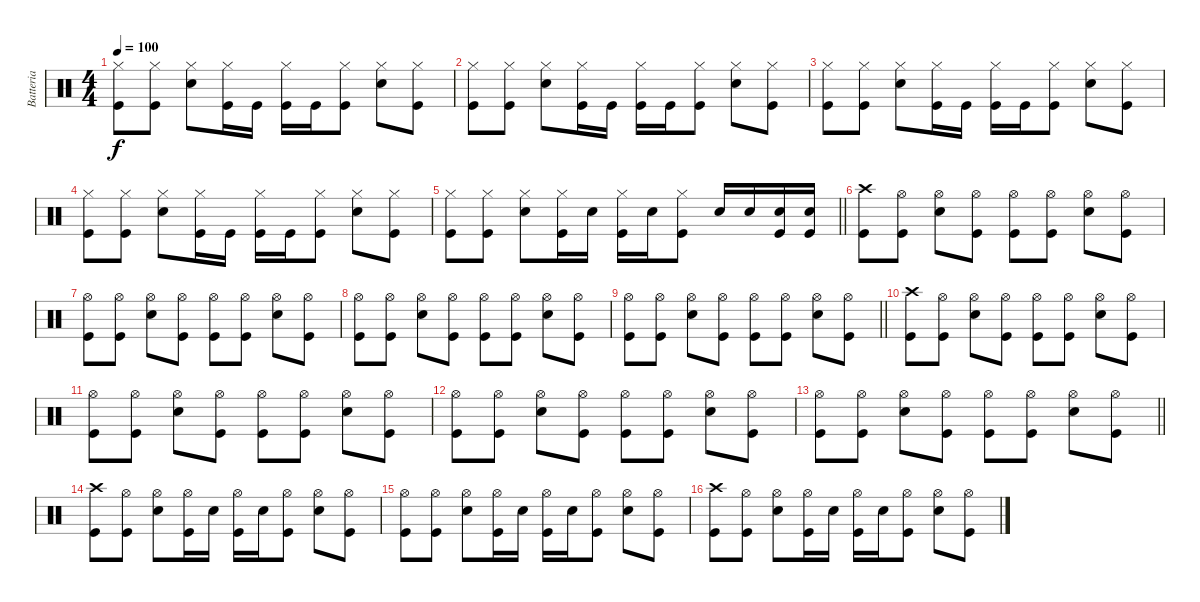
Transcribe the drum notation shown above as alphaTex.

\track ("Batteria" "Batteria") {instrument percussion}
\staff {score}
\articulation defaults
\ts (4 4)
\tempo 100
\clef neutral
\ks c
("Hi-Hat (closed)" "Kick (hit)").8{dy f} ("Hi-Hat (closed)" "Kick (hit)").8 ("Snare (hit) 2" "Hi-Hat (closed)").8 ("Hi-Hat (closed)" "Kick (hit)").16 "Kick (hit)".16 ("Kick (hit)" "Hi-Hat (closed)").16 "Kick (hit)".16 ("Kick (hit)" "Hi-Hat (closed)").8 ("Hi-Hat (closed)" "Snare (hit) 2").8 ("Kick (hit)" "Hi-Hat (closed)").8 |
("Hi-Hat (closed)" "Kick (hit)").8 ("Hi-Hat (closed)" "Kick (hit)").8 ("Snare (hit) 2" "Hi-Hat (closed)").8 ("Hi-Hat (closed)" "Kick (hit)").16 "Kick (hit)".16 ("Kick (hit)" "Hi-Hat (closed)").16 "Kick (hit)".16 ("Kick (hit)" "Hi-Hat (closed)").8 ("Hi-Hat (closed)" "Snare (hit) 2").8 ("Kick (hit)" "Hi-Hat (closed)").8 |
("Hi-Hat (closed)" "Kick (hit)").8 ("Hi-Hat (closed)" "Kick (hit)").8 ("Snare (hit) 2" "Hi-Hat (closed)").8 ("Hi-Hat (closed)" "Kick (hit)").16 "Kick (hit)".16 ("Kick (hit)" "Hi-Hat (closed)").16 "Kick (hit)".16 ("Kick (hit)" "Hi-Hat (closed)").8 ("Hi-Hat (closed)" "Snare (hit) 2").8 ("Kick (hit)" "Hi-Hat (closed)").8 |
("Hi-Hat (closed)" "Kick (hit)").8 ("Hi-Hat (closed)" "Kick (hit)").8 ("Snare (hit) 2" "Hi-Hat (closed)").8 ("Hi-Hat (closed)" "Kick (hit)").16 "Kick (hit)".16 ("Kick (hit)" "Hi-Hat (closed)").16 "Kick (hit)".16 ("Kick (hit)" "Hi-Hat (closed)").8 ("Hi-Hat (closed)" "Snare (hit) 2").8 ("Kick (hit)" "Hi-Hat (closed)").8 |
\barLineRight lightlight
("Hi-Hat (closed)" "Kick (hit)").8 ("Hi-Hat (closed)" "Kick (hit)").8 ("Snare (hit) 2" "Hi-Hat (closed)").8 ("Hi-Hat (closed)" "Kick (hit)").16 "Snare (hit) 2".16 ("Kick (hit)" "Hi-Hat (closed)").16 "Snare (hit) 2".16 ("Kick (hit)" "Hi-Hat (closed)").8 "Snare (hit) 2".16 "Snare (hit) 2".16 ("Snare (hit) 2" "Kick (hit)").16 ("Snare (hit) 2" "Kick (hit)").16 |
("Crash high (hit)" "Kick (hit)").8 ("Hi-Hat (open)" "Kick (hit)").8 ("Snare (hit) 2" "Hi-Hat (open)").8 ("Hi-Hat (open)" "Kick (hit)").8 ("Hi-Hat (open)" "Kick (hit)").8 ("Hi-Hat (open)" "Kick (hit)").8 ("Snare (hit) 2" "Hi-Hat (open)").8 ("Hi-Hat (open)" "Kick (hit)").8 |
("Hi-Hat (open)" "Kick (hit)").8 ("Hi-Hat (open)" "Kick (hit)").8 ("Snare (hit) 2" "Hi-Hat (open)").8 ("Hi-Hat (open)" "Kick (hit)").8 ("Hi-Hat (open)" "Kick (hit)").8 ("Hi-Hat (open)" "Kick (hit)").8 ("Snare (hit) 2" "Hi-Hat (open)").8 ("Hi-Hat (open)" "Kick (hit)").8 |
("Hi-Hat (open)" "Kick (hit)").8 ("Hi-Hat (open)" "Kick (hit)").8 ("Snare (hit) 2" "Hi-Hat (open)").8 ("Hi-Hat (open)" "Kick (hit)").8 ("Hi-Hat (open)" "Kick (hit)").8 ("Hi-Hat (open)" "Kick (hit)").8 ("Snare (hit) 2" "Hi-Hat (open)").8 ("Hi-Hat (open)" "Kick (hit)").8 |
\barLineRight lightlight
("Hi-Hat (open)" "Kick (hit)").8 ("Hi-Hat (open)" "Kick (hit)").8 ("Snare (hit) 2" "Hi-Hat (open)").8 ("Hi-Hat (open)" "Kick (hit)").8 ("Hi-Hat (open)" "Kick (hit)").8 ("Hi-Hat (open)" "Kick (hit)").8 ("Snare (hit) 2" "Hi-Hat (open)").8 ("Hi-Hat (open)" "Kick (hit)").8 |
("Crash high (hit)" "Kick (hit)").8 ("Hi-Hat (open)" "Kick (hit)").8 ("Snare (hit) 2" "Hi-Hat (open)").8 ("Hi-Hat (open)" "Kick (hit)").8 ("Hi-Hat (open)" "Kick (hit)").8 ("Hi-Hat (open)" "Kick (hit)").8 ("Snare (hit) 2" "Hi-Hat (open)").8 ("Hi-Hat (open)" "Kick (hit)").8 |
("Hi-Hat (open)" "Kick (hit)").8 ("Hi-Hat (open)" "Kick (hit)").8 ("Snare (hit) 2" "Hi-Hat (open)").8 ("Hi-Hat (open)" "Kick (hit)").8 ("Hi-Hat (open)" "Kick (hit)").8 ("Hi-Hat (open)" "Kick (hit)").8 ("Snare (hit) 2" "Hi-Hat (open)").8 ("Hi-Hat (open)" "Kick (hit)").8 |
("Hi-Hat (open)" "Kick (hit)").8 ("Hi-Hat (open)" "Kick (hit)").8 ("Snare (hit) 2" "Hi-Hat (open)").8 ("Hi-Hat (open)" "Kick (hit)").8 ("Hi-Hat (open)" "Kick (hit)").8 ("Hi-Hat (open)" "Kick (hit)").8 ("Snare (hit) 2" "Hi-Hat (open)").8 ("Hi-Hat (open)" "Kick (hit)").8 |
\barLineRight lightlight
("Hi-Hat (open)" "Kick (hit)").8 ("Hi-Hat (open)" "Kick (hit)").8 ("Snare (hit) 2" "Hi-Hat (open)").8 ("Hi-Hat (open)" "Kick (hit)").8 ("Hi-Hat (open)" "Kick (hit)").8 ("Hi-Hat (open)" "Kick (hit)").8 ("Snare (hit) 2" "Hi-Hat (open)").8 ("Hi-Hat (open)" "Kick (hit)").8 |
("Crash high (hit)" "Kick (hit)").8 ("Hi-Hat (open)" "Kick (hit)").8 ("Snare (hit) 2" "Hi-Hat (open)").8 ("Hi-Hat (open)" "Kick (hit)").16 "Snare (hit) 2".16 ("Kick (hit)" "Hi-Hat (open)").16 "Snare (hit) 2".16 ("Kick (hit)" "Hi-Hat (open)").8 ("Hi-Hat (open)" "Snare (hit) 2").8 ("Kick (hit)" "Hi-Hat (open)").8 |
("Hi-Hat (open)" "Kick (hit)").8 ("Hi-Hat (open)" "Kick (hit)").8 ("Snare (hit) 2" "Hi-Hat (open)").8 ("Hi-Hat (open)" "Kick (hit)").16 "Snare (hit) 2".16 ("Kick (hit)" "Hi-Hat (open)").16 "Snare (hit) 2".16 ("Kick (hit)" "Hi-Hat (open)").8 ("Hi-Hat (open)" "Snare (hit) 2").8 ("Kick (hit)" "Hi-Hat (open)").8 |
("Crash high (hit)" "Kick (hit)").8 ("Hi-Hat (open)" "Kick (hit)").8 ("Snare (hit) 2" "Hi-Hat (open)").8 ("Hi-Hat (open)" "Kick (hit)").16 "Snare (hit) 2".16 ("Kick (hit)" "Hi-Hat (open)").16 "Snare (hit) 2".16 ("Kick (hit)" "Hi-Hat (open)").8 ("Hi-Hat (open)" "Snare (hit) 2").8 ("Kick (hit)" "Hi-Hat (open)").8
